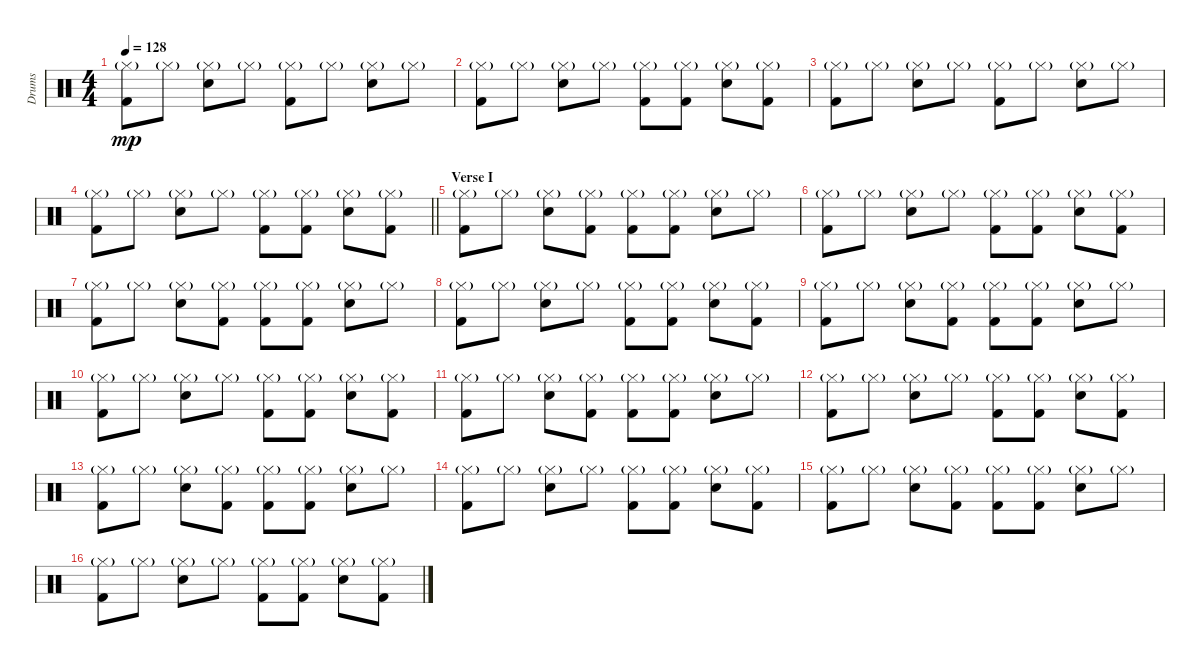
\track ("Drums" "Drums") {instrument percussion}
\staff {score}
\articulation defaults
\ts (4 4)
\tempo 128
\clef neutral
\ks c
("Kick (hit) 2" "Hi-Hat (closed)"{g}).8{dy mp} "Hi-Hat (closed)"{g}.8 ("Snare (hit) 2" "Hi-Hat (closed)"{g}).8 "Hi-Hat (closed)"{g}.8 ("Kick (hit) 2" "Hi-Hat (closed)"{g}).8 "Hi-Hat (closed)"{g}.8 ("Snare (hit) 2" "Hi-Hat (closed)"{g}).8 "Hi-Hat (closed)"{g}.8 |
("Kick (hit) 2" "Hi-Hat (closed)"{g}).8 "Hi-Hat (closed)"{g}.8 ("Snare (hit) 2" "Hi-Hat (closed)"{g}).8 "Hi-Hat (closed)"{g}.8 ("Kick (hit) 2" "Hi-Hat (closed)"{g}).8 ("Kick (hit) 2" "Hi-Hat (closed)"{g}).8 ("Snare (hit) 2" "Hi-Hat (closed)"{g}).8 ("Kick (hit) 2" "Hi-Hat (closed)"{g}).8 |
("Kick (hit) 2" "Hi-Hat (closed)"{g}).8 "Hi-Hat (closed)"{g}.8 ("Snare (hit) 2" "Hi-Hat (closed)"{g}).8 "Hi-Hat (closed)"{g}.8 ("Kick (hit) 2" "Hi-Hat (closed)"{g}).8 "Hi-Hat (closed)"{g}.8 ("Snare (hit) 2" "Hi-Hat (closed)"{g}).8 "Hi-Hat (closed)"{g}.8 |
\barLineRight lightlight
("Kick (hit) 2" "Hi-Hat (closed)"{g}).8 "Hi-Hat (closed)"{g}.8 ("Snare (hit) 2" "Hi-Hat (closed)"{g}).8 "Hi-Hat (closed)"{g}.8 ("Kick (hit) 2" "Hi-Hat (closed)"{g}).8 ("Kick (hit) 2" "Hi-Hat (closed)"{g}).8 ("Snare (hit) 2" "Hi-Hat (closed)"{g}).8 ("Kick (hit) 2" "Hi-Hat (closed)"{g}).8 |
\section ("" "Verse I")
("Kick (hit) 2" "Hi-Hat (closed)"{g}).8 "Hi-Hat (closed)"{g}.8 ("Snare (hit) 2" "Hi-Hat (closed)"{g}).8 ("Kick (hit) 2" "Hi-Hat (closed)"{g}).8 ("Kick (hit) 2" "Hi-Hat (closed)"{g}).8 ("Kick (hit) 2" "Hi-Hat (closed)"{g}).8 ("Snare (hit) 2" "Hi-Hat (closed)"{g}).8 "Hi-Hat (closed)"{g}.8 |
("Kick (hit) 2" "Hi-Hat (closed)"{g}).8 "Hi-Hat (closed)"{g}.8 ("Snare (hit) 2" "Hi-Hat (closed)"{g}).8 "Hi-Hat (closed)"{g}.8 ("Kick (hit) 2" "Hi-Hat (closed)"{g}).8 ("Kick (hit) 2" "Hi-Hat (closed)"{g}).8 ("Snare (hit) 2" "Hi-Hat (closed)"{g}).8 ("Kick (hit) 2" "Hi-Hat (closed)"{g}).8 |
("Kick (hit) 2" "Hi-Hat (closed)"{g}).8 "Hi-Hat (closed)"{g}.8 ("Snare (hit) 2" "Hi-Hat (closed)"{g}).8 ("Kick (hit) 2" "Hi-Hat (closed)"{g}).8 ("Kick (hit) 2" "Hi-Hat (closed)"{g}).8 ("Kick (hit) 2" "Hi-Hat (closed)"{g}).8 ("Snare (hit) 2" "Hi-Hat (closed)"{g}).8 "Hi-Hat (closed)"{g}.8 |
("Kick (hit) 2" "Hi-Hat (closed)"{g}).8 "Hi-Hat (closed)"{g}.8 ("Snare (hit) 2" "Hi-Hat (closed)"{g}).8 "Hi-Hat (closed)"{g}.8 ("Kick (hit) 2" "Hi-Hat (closed)"{g}).8 ("Kick (hit) 2" "Hi-Hat (closed)"{g}).8 ("Snare (hit) 2" "Hi-Hat (closed)"{g}).8 ("Kick (hit) 2" "Hi-Hat (closed)"{g}).8 |
("Kick (hit) 2" "Hi-Hat (closed)"{g}).8 "Hi-Hat (closed)"{g}.8 ("Snare (hit) 2" "Hi-Hat (closed)"{g}).8 ("Kick (hit) 2" "Hi-Hat (closed)"{g}).8 ("Kick (hit) 2" "Hi-Hat (closed)"{g}).8 ("Kick (hit) 2" "Hi-Hat (closed)"{g}).8 ("Snare (hit) 2" "Hi-Hat (closed)"{g}).8 "Hi-Hat (closed)"{g}.8 |
("Kick (hit) 2" "Hi-Hat (closed)"{g}).8 "Hi-Hat (closed)"{g}.8 ("Snare (hit) 2" "Hi-Hat (closed)"{g}).8 "Hi-Hat (closed)"{g}.8 ("Kick (hit) 2" "Hi-Hat (closed)"{g}).8 ("Kick (hit) 2" "Hi-Hat (closed)"{g}).8 ("Snare (hit) 2" "Hi-Hat (closed)"{g}).8 ("Kick (hit) 2" "Hi-Hat (closed)"{g}).8 |
("Kick (hit) 2" "Hi-Hat (closed)"{g}).8 "Hi-Hat (closed)"{g}.8 ("Snare (hit) 2" "Hi-Hat (closed)"{g}).8 ("Kick (hit) 2" "Hi-Hat (closed)"{g}).8 ("Kick (hit) 2" "Hi-Hat (closed)"{g}).8 ("Kick (hit) 2" "Hi-Hat (closed)"{g}).8 ("Snare (hit) 2" "Hi-Hat (closed)"{g}).8 "Hi-Hat (closed)"{g}.8 |
("Kick (hit) 2" "Hi-Hat (closed)"{g}).8 "Hi-Hat (closed)"{g}.8 ("Snare (hit) 2" "Hi-Hat (closed)"{g}).8 "Hi-Hat (closed)"{g}.8 ("Kick (hit) 2" "Hi-Hat (closed)"{g}).8 ("Kick (hit) 2" "Hi-Hat (closed)"{g}).8 ("Snare (hit) 2" "Hi-Hat (closed)"{g}).8 ("Kick (hit) 2" "Hi-Hat (closed)"{g}).8 |
("Kick (hit) 2" "Hi-Hat (closed)"{g}).8 "Hi-Hat (closed)"{g}.8 ("Snare (hit) 2" "Hi-Hat (closed)"{g}).8 ("Kick (hit) 2" "Hi-Hat (closed)"{g}).8 ("Kick (hit) 2" "Hi-Hat (closed)"{g}).8 ("Kick (hit) 2" "Hi-Hat (closed)"{g}).8 ("Snare (hit) 2" "Hi-Hat (closed)"{g}).8 "Hi-Hat (closed)"{g}.8 |
("Kick (hit) 2" "Hi-Hat (closed)"{g}).8 "Hi-Hat (closed)"{g}.8 ("Snare (hit) 2" "Hi-Hat (closed)"{g}).8 "Hi-Hat (closed)"{g}.8 ("Kick (hit) 2" "Hi-Hat (closed)"{g}).8 ("Kick (hit) 2" "Hi-Hat (closed)"{g}).8 ("Snare (hit) 2" "Hi-Hat (closed)"{g}).8 ("Kick (hit) 2" "Hi-Hat (closed)"{g}).8 |
("Kick (hit) 2" "Hi-Hat (closed)"{g}).8 "Hi-Hat (closed)"{g}.8 ("Snare (hit) 2" "Hi-Hat (closed)"{g}).8 ("Kick (hit) 2" "Hi-Hat (closed)"{g}).8 ("Kick (hit) 2" "Hi-Hat (closed)"{g}).8 ("Kick (hit) 2" "Hi-Hat (closed)"{g}).8 ("Snare (hit) 2" "Hi-Hat (closed)"{g}).8 "Hi-Hat (closed)"{g}.8 |
("Kick (hit) 2" "Hi-Hat (closed)"{g}).8 "Hi-Hat (closed)"{g}.8 ("Snare (hit) 2" "Hi-Hat (closed)"{g}).8 "Hi-Hat (closed)"{g}.8 ("Kick (hit) 2" "Hi-Hat (closed)"{g}).8 ("Kick (hit) 2" "Hi-Hat (closed)"{g}).8 ("Snare (hit) 2" "Hi-Hat (closed)"{g}).8 ("Kick (hit) 2" "Hi-Hat (closed)"{g}).8
